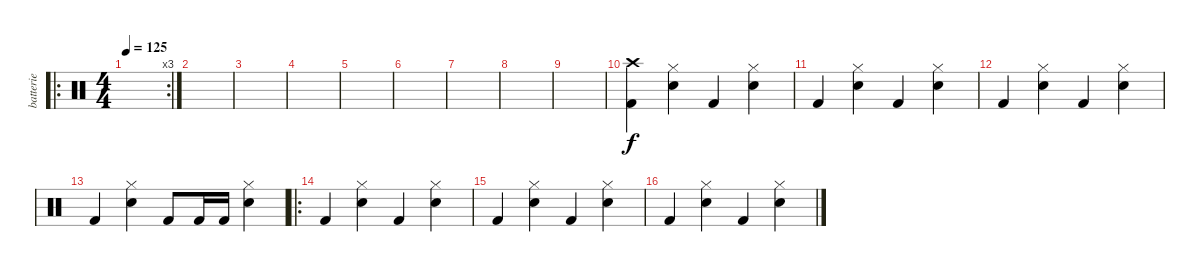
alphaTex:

\track ("batterie" "batterie") {instrument percussion}
\staff {score}
\articulation defaults
\ro
\rc 3
\ts (4 4)
\tempo 125
\clef neutral
\ks c
|
|
|
|
|
|
|
|
|
("Crash high (hit)" "Kick (hit) 2").4 ("Hi-Hat (closed)" "Snare (hit) 2").4 "Kick (hit) 2".4 ("Hi-Hat (closed)" "Snare (hit) 2").4 |
"Kick (hit) 2".4 ("Hi-Hat (closed)" "Snare (hit) 2").4 "Kick (hit) 2".4 ("Hi-Hat (closed)" "Snare (hit) 2").4 |
"Kick (hit) 2".4 ("Hi-Hat (closed)" "Snare (hit) 2").4 "Kick (hit) 2".4 ("Hi-Hat (closed)" "Snare (hit) 2").4 |
"Kick (hit) 2".4 ("Hi-Hat (closed)" "Snare (hit) 2").4 "Kick (hit) 2".8 "Kick (hit) 2".16 "Kick (hit) 2".16 ("Hi-Hat (closed)" "Snare (hit) 2").4 |
\ro "Kick (hit) 2".4
("Hi-Hat (closed)" "Snare (hit) 2").4 "Kick (hit) 2".4 ("Hi-Hat (closed)" "Snare (hit) 2").4 |
"Kick (hit) 2".4 ("Hi-Hat (closed)" "Snare (hit) 2").4 "Kick (hit) 2".4 ("Hi-Hat (closed)" "Snare (hit) 2").4 |
"Kick (hit) 2".4 ("Hi-Hat (closed)" "Snare (hit) 2").4 "Kick (hit) 2".4 ("Hi-Hat (closed)" "Snare (hit) 2").4
